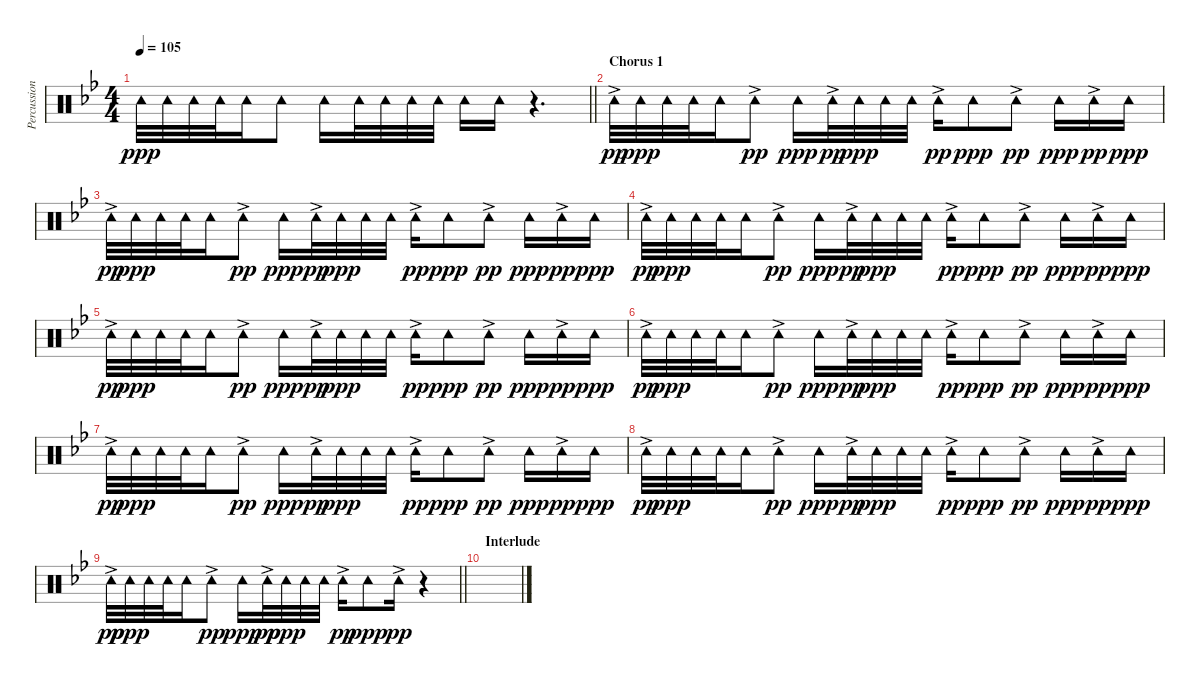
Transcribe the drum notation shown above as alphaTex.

\track ("Percussion" "Percussion") {instrument percussion}
\staff {score}
\articulation defaults
\ts (4 4)
\tempo 105
\clef neutral
\barLineRight lightlight
\ks bb "Tambourine (hit)".32{dy ppp} "Tambourine (hit)".32 "Tambourine (hit)".32 "Tambourine (hit)".32 "Tambourine (hit)".16 "Tambourine (hit)".8 "Tambourine (hit)".16 "Tambourine (hit)".32 "Tambourine (hit)".32 "Tambourine (hit)".32 "Tambourine (hit)".32 "Tambourine (hit)".16 "Tambourine (hit)".16
r.4{d} |
\section ("" "Chorus 1")
"Tambourine (hit)"{ac}.32{dy pp} "Tambourine (hit)".32{dy ppp} "Tambourine (hit)".32 "Tambourine (hit)".32 "Tambourine (hit)".16 "Tambourine (hit)"{ac}.8{dy pp} "Tambourine (hit)".16{dy ppp} "Tambourine (hit)"{ac}.32{dy pp} "Tambourine (hit)".32{dy ppp} "Tambourine (hit)".32 "Tambourine (hit)".32 "Tambourine (hit)"{ac}.16{dy pp} "Tambourine (hit)".8{dy ppp} "Tambourine (hit)"{ac}.8{dy pp} "Tambourine (hit)".16{dy ppp} "Tambourine (hit)"{ac}.16{dy pp} "Tambourine (hit)".16{dy ppp} |
"Tambourine (hit)"{ac}.32{dy pp} "Tambourine (hit)".32{dy ppp} "Tambourine (hit)".32 "Tambourine (hit)".32 "Tambourine (hit)".16 "Tambourine (hit)"{ac}.8{dy pp} "Tambourine (hit)".16{dy ppp} "Tambourine (hit)"{ac}.32{dy pp} "Tambourine (hit)".32{dy ppp} "Tambourine (hit)".32 "Tambourine (hit)".32 "Tambourine (hit)"{ac}.16{dy pp} "Tambourine (hit)".8{dy ppp} "Tambourine (hit)"{ac}.8{dy pp} "Tambourine (hit)".16{dy ppp} "Tambourine (hit)"{ac}.16{dy pp} "Tambourine (hit)".16{dy ppp} |
"Tambourine (hit)"{ac}.32{dy pp} "Tambourine (hit)".32{dy ppp} "Tambourine (hit)".32 "Tambourine (hit)".32 "Tambourine (hit)".16 "Tambourine (hit)"{ac}.8{dy pp} "Tambourine (hit)".16{dy ppp} "Tambourine (hit)"{ac}.32{dy pp} "Tambourine (hit)".32{dy ppp} "Tambourine (hit)".32 "Tambourine (hit)".32 "Tambourine (hit)"{ac}.16{dy pp} "Tambourine (hit)".8{dy ppp} "Tambourine (hit)"{ac}.8{dy pp} "Tambourine (hit)".16{dy ppp} "Tambourine (hit)"{ac}.16{dy pp} "Tambourine (hit)".16{dy ppp} |
"Tambourine (hit)"{ac}.32{dy pp} "Tambourine (hit)".32{dy ppp} "Tambourine (hit)".32 "Tambourine (hit)".32 "Tambourine (hit)".16 "Tambourine (hit)"{ac}.8{dy pp} "Tambourine (hit)".16{dy ppp} "Tambourine (hit)"{ac}.32{dy pp} "Tambourine (hit)".32{dy ppp} "Tambourine (hit)".32 "Tambourine (hit)".32 "Tambourine (hit)"{ac}.16{dy pp} "Tambourine (hit)".8{dy ppp} "Tambourine (hit)"{ac}.8{dy pp} "Tambourine (hit)".16{dy ppp} "Tambourine (hit)"{ac}.16{dy pp} "Tambourine (hit)".16{dy ppp} |
"Tambourine (hit)"{ac}.32{dy pp} "Tambourine (hit)".32{dy ppp} "Tambourine (hit)".32 "Tambourine (hit)".32 "Tambourine (hit)".16 "Tambourine (hit)"{ac}.8{dy pp} "Tambourine (hit)".16{dy ppp} "Tambourine (hit)"{ac}.32{dy pp} "Tambourine (hit)".32{dy ppp} "Tambourine (hit)".32 "Tambourine (hit)".32 "Tambourine (hit)"{ac}.16{dy pp} "Tambourine (hit)".8{dy ppp} "Tambourine (hit)"{ac}.8{dy pp} "Tambourine (hit)".16{dy ppp} "Tambourine (hit)"{ac}.16{dy pp} "Tambourine (hit)".16{dy ppp} |
"Tambourine (hit)"{ac}.32{dy pp} "Tambourine (hit)".32{dy ppp} "Tambourine (hit)".32 "Tambourine (hit)".32 "Tambourine (hit)".16 "Tambourine (hit)"{ac}.8{dy pp} "Tambourine (hit)".16{dy ppp} "Tambourine (hit)"{ac}.32{dy pp} "Tambourine (hit)".32{dy ppp} "Tambourine (hit)".32 "Tambourine (hit)".32 "Tambourine (hit)"{ac}.16{dy pp} "Tambourine (hit)".8{dy ppp} "Tambourine (hit)"{ac}.8{dy pp} "Tambourine (hit)".16{dy ppp} "Tambourine (hit)"{ac}.16{dy pp} "Tambourine (hit)".16{dy ppp} |
"Tambourine (hit)"{ac}.32{dy pp} "Tambourine (hit)".32{dy ppp} "Tambourine (hit)".32 "Tambourine (hit)".32 "Tambourine (hit)".16 "Tambourine (hit)"{ac}.8{dy pp} "Tambourine (hit)".16{dy ppp} "Tambourine (hit)"{ac}.32{dy pp} "Tambourine (hit)".32{dy ppp} "Tambourine (hit)".32 "Tambourine (hit)".32 "Tambourine (hit)"{ac}.16{dy pp} "Tambourine (hit)".8{dy ppp} "Tambourine (hit)"{ac}.8{dy pp} "Tambourine (hit)".16{dy ppp} "Tambourine (hit)"{ac}.16{dy pp} "Tambourine (hit)".16{dy ppp} |
\barLineRight lightlight "Tambourine (hit)"{ac}.32{dy pp} "Tambourine (hit)".32{dy ppp} "Tambourine (hit)".32 "Tambourine (hit)".32 "Tambourine (hit)".16 "Tambourine (hit)"{ac}.8{dy pp} "Tambourine (hit)".16{dy ppp} "Tambourine (hit)"{ac}.32{dy pp} "Tambourine (hit)".32{dy ppp} "Tambourine (hit)".32 "Tambourine (hit)".32 "Tambourine (hit)"{ac}.16{dy pp} "Tambourine (hit)".8{dy ppp} "Tambourine (hit)"{ac}.16{dy pp}
r.4 |
\section ("" "Interlude")
